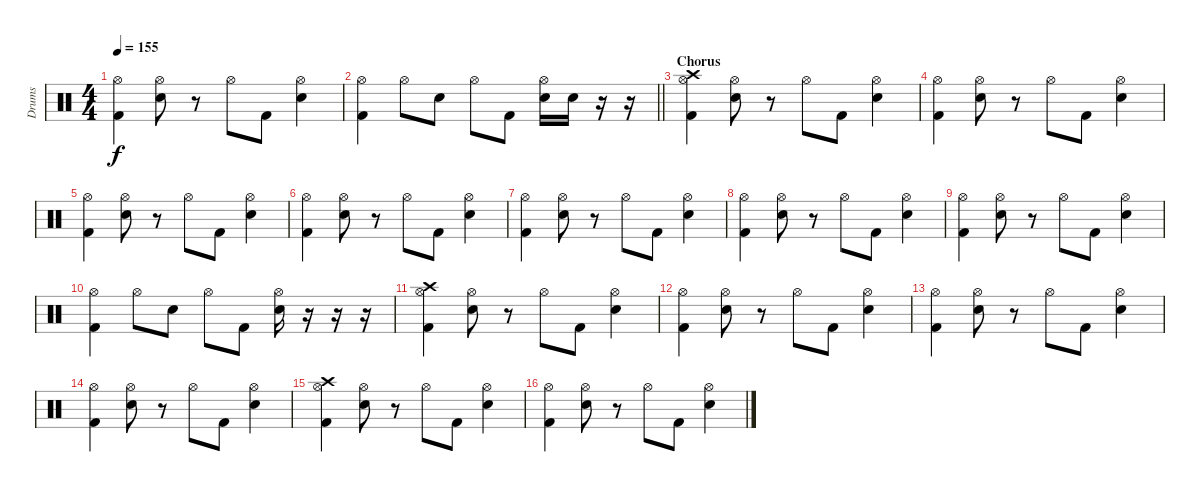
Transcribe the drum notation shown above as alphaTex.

\track ("Drums" "Drums") {instrument percussion}
\staff {score}
\articulation defaults
\ts (4 4)
\tempo 155
\clef neutral
\ks c
("Hi-Hat (open)" "Kick (hit) 2").4{dy f} ("Hi-Hat (open)" "Electric Snare (hit)").8 r.8 "Hi-Hat (open)".8 "Kick (hit) 2".8 ("Hi-Hat (open)" "Electric Snare (hit)").4 |
\barLineRight lightlight
("Hi-Hat (open)" "Kick (hit) 2").4 "Hi-Hat (open)".8 "Electric Snare (hit)".8 "Hi-Hat (open)".8 "Kick (hit) 2".8 ("Hi-Hat (open)" "Electric Snare (hit)").16 "Electric Snare (hit)".16 r.16 r.16 |
\section ("" "Chorus")
("Hi-Hat (open)" "Crash high (hit)" "Kick (hit) 2").4 ("Hi-Hat (open)" "Electric Snare (hit)").8 r.8 "Hi-Hat (open)".8 "Kick (hit) 2".8 ("Hi-Hat (open)" "Electric Snare (hit)").4 |
("Hi-Hat (open)" "Kick (hit) 2").4 ("Hi-Hat (open)" "Electric Snare (hit)").8 r.8 "Hi-Hat (open)".8 "Kick (hit) 2".8 ("Hi-Hat (open)" "Electric Snare (hit)").4 |
("Hi-Hat (open)" "Kick (hit) 2").4 ("Hi-Hat (open)" "Electric Snare (hit)").8 r.8 "Hi-Hat (open)".8 "Kick (hit) 2".8 ("Hi-Hat (open)" "Electric Snare (hit)").4 |
("Hi-Hat (open)" "Kick (hit) 2").4 ("Hi-Hat (open)" "Electric Snare (hit)").8 r.8 "Hi-Hat (open)".8 "Kick (hit) 2".8 ("Hi-Hat (open)" "Electric Snare (hit)").4 |
("Hi-Hat (open)" "Kick (hit) 2").4 ("Hi-Hat (open)" "Electric Snare (hit)").8 r.8 "Hi-Hat (open)".8 "Kick (hit) 2".8 ("Hi-Hat (open)" "Electric Snare (hit)").4 |
("Hi-Hat (open)" "Kick (hit) 2").4 ("Hi-Hat (open)" "Electric Snare (hit)").8 r.8 "Hi-Hat (open)".8 "Kick (hit) 2".8 ("Hi-Hat (open)" "Electric Snare (hit)").4 |
("Hi-Hat (open)" "Kick (hit) 2").4 ("Hi-Hat (open)" "Electric Snare (hit)").8 r.8 "Hi-Hat (open)".8 "Kick (hit) 2".8 ("Hi-Hat (open)" "Electric Snare (hit)").4 |
("Hi-Hat (open)" "Kick (hit) 2").4 "Hi-Hat (open)".8 "Electric Snare (hit)".8 "Hi-Hat (open)".8 "Kick (hit) 2".8 ("Hi-Hat (open)" "Electric Snare (hit)").16 r.16 r.16 r.16 |
("Hi-Hat (open)" "Crash high (hit)" "Kick (hit) 2").4 ("Hi-Hat (open)" "Electric Snare (hit)").8 r.8 "Hi-Hat (open)".8 "Kick (hit) 2".8 ("Hi-Hat (open)" "Electric Snare (hit)").4 |
("Hi-Hat (open)" "Kick (hit) 2").4 ("Hi-Hat (open)" "Electric Snare (hit)").8 r.8 "Hi-Hat (open)".8 "Kick (hit) 2".8 ("Hi-Hat (open)" "Electric Snare (hit)").4 |
("Hi-Hat (open)" "Kick (hit) 2").4 ("Hi-Hat (open)" "Electric Snare (hit)").8 r.8 "Hi-Hat (open)".8 "Kick (hit) 2".8 ("Hi-Hat (open)" "Electric Snare (hit)").4 |
("Hi-Hat (open)" "Kick (hit) 2").4 ("Hi-Hat (open)" "Electric Snare (hit)").8 r.8 "Hi-Hat (open)".8 "Kick (hit) 2".8 ("Hi-Hat (open)" "Electric Snare (hit)").4 |
("Hi-Hat (open)" "Crash high (hit)" "Kick (hit) 2").4 ("Hi-Hat (open)" "Electric Snare (hit)").8 r.8 "Hi-Hat (open)".8 "Kick (hit) 2".8 ("Hi-Hat (open)" "Electric Snare (hit)").4 |
("Hi-Hat (open)" "Kick (hit) 2").4 ("Hi-Hat (open)" "Electric Snare (hit)").8 r.8 "Hi-Hat (open)".8 "Kick (hit) 2".8 ("Hi-Hat (open)" "Electric Snare (hit)").4
